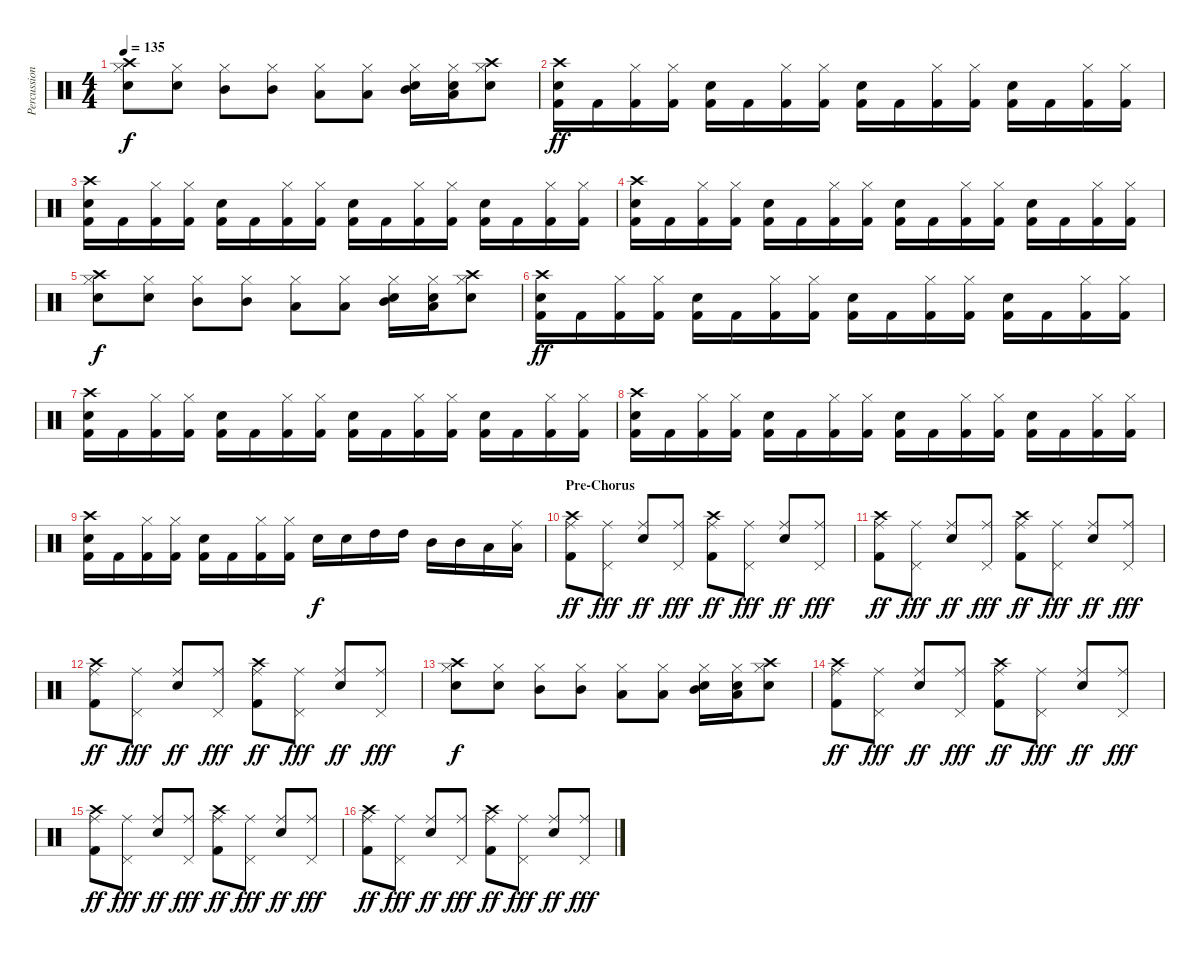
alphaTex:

\track ("Percussion" "Percussion") {instrument percussion}
\staff {score}
\articulation defaults
\ts (4 4)
\tempo 135
\clef neutral
\ks c
("Hi-Hat (closed)" "Crash high (hit)" "Electric Snare (hit)").8{dy f} ("Hi-Hat (closed)" "Electric Snare (hit)").8 ("Hi-Hat (closed)" "Mid Tom (hit)").8 ("Hi-Hat (closed)" "Mid Tom (hit)").8 ("Hi-Hat (closed)" "Low Tom (hit)").8 ("Hi-Hat (closed)" "Low Tom (hit)").8 ("Hi-Hat (closed)" "Mid Tom (hit)" "Electric Snare (hit)").16 ("Hi-Hat (closed)" "Low Tom (hit)" "Electric Snare (hit)").16 ("Hi-Hat (closed)" "Crash high (hit)" "Electric Snare (hit)").8 |
("Crash high (hit)" "Electric Snare (hit)" "Kick (hit) 2").16{dy ff} "Kick (hit) 2".16 ("Hi-Hat (closed)" "Kick (hit) 2").16 ("Hi-Hat (closed)" "Kick (hit) 2").16 ("Electric Snare (hit)" "Kick (hit) 2").16 "Kick (hit) 2".16 ("Hi-Hat (closed)" "Kick (hit) 2").16 ("Hi-Hat (closed)" "Kick (hit) 2").16 ("Electric Snare (hit)" "Kick (hit) 2").16 "Kick (hit) 2".16 ("Hi-Hat (closed)" "Kick (hit) 2").16 ("Hi-Hat (closed)" "Kick (hit) 2").16 ("Electric Snare (hit)" "Kick (hit) 2").16 "Kick (hit) 2".16 ("Hi-Hat (closed)" "Kick (hit) 2").16 ("Hi-Hat (closed)" "Kick (hit) 2").16 |
("Crash high (hit)" "Electric Snare (hit)" "Kick (hit) 2").16 "Kick (hit) 2".16 ("Hi-Hat (closed)" "Kick (hit) 2").16 ("Hi-Hat (closed)" "Kick (hit) 2").16 ("Electric Snare (hit)" "Kick (hit) 2").16 "Kick (hit) 2".16 ("Hi-Hat (closed)" "Kick (hit) 2").16 ("Hi-Hat (closed)" "Kick (hit) 2").16 ("Electric Snare (hit)" "Kick (hit) 2").16 "Kick (hit) 2".16 ("Hi-Hat (closed)" "Kick (hit) 2").16 ("Hi-Hat (closed)" "Kick (hit) 2").16 ("Electric Snare (hit)" "Kick (hit) 2").16 "Kick (hit) 2".16 ("Hi-Hat (closed)" "Kick (hit) 2").16 ("Hi-Hat (closed)" "Kick (hit) 2").16 |
("Crash high (hit)" "Electric Snare (hit)" "Kick (hit) 2").16 "Kick (hit) 2".16 ("Hi-Hat (closed)" "Kick (hit) 2").16 ("Hi-Hat (closed)" "Kick (hit) 2").16 ("Electric Snare (hit)" "Kick (hit) 2").16 "Kick (hit) 2".16 ("Hi-Hat (closed)" "Kick (hit) 2").16 ("Hi-Hat (closed)" "Kick (hit) 2").16 ("Electric Snare (hit)" "Kick (hit) 2").16 "Kick (hit) 2".16 ("Hi-Hat (closed)" "Kick (hit) 2").16 ("Hi-Hat (closed)" "Kick (hit) 2").16 ("Electric Snare (hit)" "Kick (hit) 2").16 "Kick (hit) 2".16 ("Hi-Hat (closed)" "Kick (hit) 2").16 ("Hi-Hat (closed)" "Kick (hit) 2").16 |
("Hi-Hat (closed)" "Crash high (hit)" "Electric Snare (hit)").8{dy f} ("Hi-Hat (closed)" "Electric Snare (hit)").8 ("Hi-Hat (closed)" "Mid Tom (hit)").8 ("Hi-Hat (closed)" "Mid Tom (hit)").8 ("Hi-Hat (closed)" "Low Tom (hit)").8 ("Hi-Hat (closed)" "Low Tom (hit)").8 ("Hi-Hat (closed)" "Mid Tom (hit)" "Electric Snare (hit)").16 ("Hi-Hat (closed)" "Low Tom (hit)" "Electric Snare (hit)").16 ("Hi-Hat (closed)" "Crash high (hit)" "Electric Snare (hit)").8 |
("Crash high (hit)" "Electric Snare (hit)" "Kick (hit) 2").16{dy ff} "Kick (hit) 2".16 ("Hi-Hat (closed)" "Kick (hit) 2").16 ("Hi-Hat (closed)" "Kick (hit) 2").16 ("Electric Snare (hit)" "Kick (hit) 2").16 "Kick (hit) 2".16 ("Hi-Hat (closed)" "Kick (hit) 2").16 ("Hi-Hat (closed)" "Kick (hit) 2").16 ("Electric Snare (hit)" "Kick (hit) 2").16 "Kick (hit) 2".16 ("Hi-Hat (closed)" "Kick (hit) 2").16 ("Hi-Hat (closed)" "Kick (hit) 2").16 ("Electric Snare (hit)" "Kick (hit) 2").16 "Kick (hit) 2".16 ("Hi-Hat (closed)" "Kick (hit) 2").16 ("Hi-Hat (closed)" "Kick (hit) 2").16 |
("Crash high (hit)" "Electric Snare (hit)" "Kick (hit) 2").16 "Kick (hit) 2".16 ("Hi-Hat (closed)" "Kick (hit) 2").16 ("Hi-Hat (closed)" "Kick (hit) 2").16 ("Electric Snare (hit)" "Kick (hit) 2").16 "Kick (hit) 2".16 ("Hi-Hat (closed)" "Kick (hit) 2").16 ("Hi-Hat (closed)" "Kick (hit) 2").16 ("Electric Snare (hit)" "Kick (hit) 2").16 "Kick (hit) 2".16 ("Hi-Hat (closed)" "Kick (hit) 2").16 ("Hi-Hat (closed)" "Kick (hit) 2").16 ("Electric Snare (hit)" "Kick (hit) 2").16 "Kick (hit) 2".16 ("Hi-Hat (closed)" "Kick (hit) 2").16 ("Hi-Hat (closed)" "Kick (hit) 2").16 |
("Crash high (hit)" "Electric Snare (hit)" "Kick (hit) 2").16 "Kick (hit) 2".16 ("Hi-Hat (closed)" "Kick (hit) 2").16 ("Hi-Hat (closed)" "Kick (hit) 2").16 ("Electric Snare (hit)" "Kick (hit) 2").16 "Kick (hit) 2".16 ("Hi-Hat (closed)" "Kick (hit) 2").16 ("Hi-Hat (closed)" "Kick (hit) 2").16 ("Electric Snare (hit)" "Kick (hit) 2").16 "Kick (hit) 2".16 ("Hi-Hat (closed)" "Kick (hit) 2").16 ("Hi-Hat (closed)" "Kick (hit) 2").16 ("Electric Snare (hit)" "Kick (hit) 2").16 "Kick (hit) 2".16 ("Hi-Hat (closed)" "Kick (hit) 2").16 ("Hi-Hat (closed)" "Kick (hit) 2").16 |
("Crash high (hit)" "Electric Snare (hit)" "Kick (hit) 2").16 "Kick (hit) 2".16 ("Hi-Hat (closed)" "Kick (hit) 2").16 ("Hi-Hat (closed)" "Kick (hit) 2").16 ("Electric Snare (hit)" "Kick (hit) 2").16 "Kick (hit) 2".16 ("Hi-Hat (closed)" "Kick (hit) 2").16 ("Hi-Hat (closed)" "Kick (hit) 2").16 "Electric Snare (hit)".16{dy f} "Electric Snare (hit)".16 "High Tom (hit)".16 "High Tom (hit)".16 "Mid Tom (hit)".16 "Mid Tom (hit)".16 "Low Tom (hit)".16 ("Ride (middle)" "Low Tom (hit)").16 |
\section ("" "Pre-Chorus")
("Crash high (hit)" "Ride (middle)" "Kick (hit) 2").8{dy ff} ("Ride (middle)" "Pedal Hi-Hat (hit)").8{dy fff} ("Ride (middle)" "Electric Snare (hit)").8{dy ff} ("Ride (middle)" "Pedal Hi-Hat (hit)").8{dy fff} ("Crash high (hit)" "Ride (middle)" "Kick (hit) 2").8{dy ff} ("Ride (middle)" "Pedal Hi-Hat (hit)").8{dy fff} ("Ride (middle)" "Electric Snare (hit)").8{dy ff} ("Ride (middle)" "Pedal Hi-Hat (hit)").8{dy fff} |
("Crash high (hit)" "Ride (middle)" "Kick (hit) 2").8{dy ff} ("Ride (middle)" "Pedal Hi-Hat (hit)").8{dy fff} ("Ride (middle)" "Electric Snare (hit)").8{dy ff} ("Ride (middle)" "Pedal Hi-Hat (hit)").8{dy fff} ("Crash high (hit)" "Ride (middle)" "Kick (hit) 2").8{dy ff} ("Ride (middle)" "Pedal Hi-Hat (hit)").8{dy fff} ("Ride (middle)" "Electric Snare (hit)").8{dy ff} ("Ride (middle)" "Pedal Hi-Hat (hit)").8{dy fff} |
("Crash high (hit)" "Ride (middle)" "Kick (hit) 2").8{dy ff} ("Ride (middle)" "Pedal Hi-Hat (hit)").8{dy fff} ("Ride (middle)" "Electric Snare (hit)").8{dy ff} ("Ride (middle)" "Pedal Hi-Hat (hit)").8{dy fff} ("Crash high (hit)" "Ride (middle)" "Kick (hit) 2").8{dy ff} ("Ride (middle)" "Pedal Hi-Hat (hit)").8{dy fff} ("Ride (middle)" "Electric Snare (hit)").8{dy ff} ("Ride (middle)" "Pedal Hi-Hat (hit)").8{dy fff} |
("Hi-Hat (closed)" "Crash high (hit)" "Electric Snare (hit)").8{dy f} ("Hi-Hat (closed)" "Electric Snare (hit)").8 ("Hi-Hat (closed)" "Mid Tom (hit)").8 ("Hi-Hat (closed)" "Mid Tom (hit)").8 ("Hi-Hat (closed)" "Low Tom (hit)").8 ("Hi-Hat (closed)" "Low Tom (hit)").8 ("Hi-Hat (closed)" "Mid Tom (hit)" "Electric Snare (hit)").16 ("Hi-Hat (closed)" "Low Tom (hit)" "Electric Snare (hit)").16 ("Hi-Hat (closed)" "Crash high (hit)" "Electric Snare (hit)").8 |
("Crash high (hit)" "Ride (middle)" "Kick (hit) 2").8{dy ff} ("Ride (middle)" "Pedal Hi-Hat (hit)").8{dy fff} ("Ride (middle)" "Electric Snare (hit)").8{dy ff} ("Ride (middle)" "Pedal Hi-Hat (hit)").8{dy fff} ("Crash high (hit)" "Ride (middle)" "Kick (hit) 2").8{dy ff} ("Ride (middle)" "Pedal Hi-Hat (hit)").8{dy fff} ("Ride (middle)" "Electric Snare (hit)").8{dy ff} ("Ride (middle)" "Pedal Hi-Hat (hit)").8{dy fff} |
("Crash high (hit)" "Ride (middle)" "Kick (hit) 2").8{dy ff} ("Ride (middle)" "Pedal Hi-Hat (hit)").8{dy fff} ("Ride (middle)" "Electric Snare (hit)").8{dy ff} ("Ride (middle)" "Pedal Hi-Hat (hit)").8{dy fff} ("Crash high (hit)" "Ride (middle)" "Kick (hit) 2").8{dy ff} ("Ride (middle)" "Pedal Hi-Hat (hit)").8{dy fff} ("Ride (middle)" "Electric Snare (hit)").8{dy ff} ("Ride (middle)" "Pedal Hi-Hat (hit)").8{dy fff} |
("Crash high (hit)" "Ride (middle)" "Kick (hit) 2").8{dy ff} ("Ride (middle)" "Pedal Hi-Hat (hit)").8{dy fff} ("Ride (middle)" "Electric Snare (hit)").8{dy ff} ("Ride (middle)" "Pedal Hi-Hat (hit)").8{dy fff} ("Crash high (hit)" "Ride (middle)" "Kick (hit) 2").8{dy ff} ("Ride (middle)" "Pedal Hi-Hat (hit)").8{dy fff} ("Ride (middle)" "Electric Snare (hit)").8{dy ff} ("Ride (middle)" "Pedal Hi-Hat (hit)").8{dy fff}
